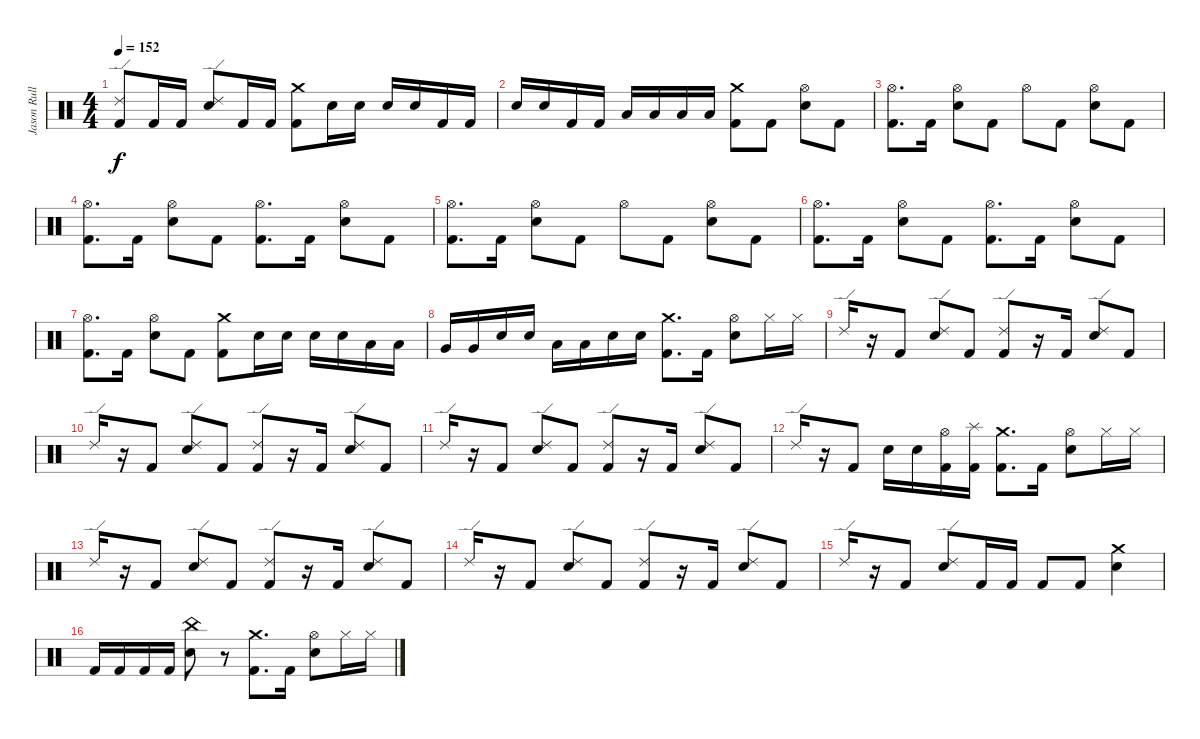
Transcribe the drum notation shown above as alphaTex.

\track ("Jason Rullo" "Jason Rull") {instrument percussion}
\staff {score}
\articulation defaults
\ts (4 4)
\tempo 152
\clef neutral
\ks c
("Ride (edge) 2" "Kick (hit) 2").8{dy f} "Kick (hit) 2".16 "Kick (hit) 2".16 ("Ride (edge) 2" "Electric Snare (hit)").8 "Kick (hit) 2".16 "Kick (hit) 2".16 ("Crash medium (hit)" "Kick (hit) 2").8 "Electric Snare (hit)".16 "Electric Snare (hit)".16 "Electric Snare (hit)".16 "Electric Snare (hit)".16 "Kick (hit) 2".16 "Kick (hit) 2".16 |
"Electric Snare (hit)".16 "Electric Snare (hit)".16 "Kick (hit) 2".16 "Kick (hit) 2".16 "Low Tom (hit)".16 "Low Tom (hit)".16 "Low Floor Tom (hit)".16 "Low Floor Tom (hit)".16 ("Crash medium (hit)" "Kick (hit) 2").8 "Kick (hit) 2".8 ("Hi-Hat (open)" "Electric Snare (hit)").8 "Kick (hit) 2".8 |
("Hi-Hat (open)" "Kick (hit) 2").8{d} "Kick (hit) 2".16 ("Hi-Hat (open)" "Electric Snare (hit)").8 "Kick (hit) 2".8 "Hi-Hat (open)".8 "Kick (hit) 2".8 ("Hi-Hat (open)" "Electric Snare (hit)").8 "Kick (hit) 2".8 |
("Hi-Hat (open)" "Kick (hit) 2").8{d} "Kick (hit) 2".16 ("Hi-Hat (open)" "Electric Snare (hit)").8 "Kick (hit) 2".8 ("Hi-Hat (open)" "Kick (hit) 2").8{d} "Kick (hit) 2".16 ("Hi-Hat (open)" "Electric Snare (hit)").8 "Kick (hit) 2".8 |
("Hi-Hat (open)" "Kick (hit) 2").8{d} "Kick (hit) 2".16 ("Hi-Hat (open)" "Electric Snare (hit)").8 "Kick (hit) 2".8 "Hi-Hat (open)".8 "Kick (hit) 2".8 ("Hi-Hat (open)" "Electric Snare (hit)").8 "Kick (hit) 2".8 |
("Hi-Hat (open)" "Kick (hit) 2").8{d} "Kick (hit) 2".16 ("Hi-Hat (open)" "Electric Snare (hit)").8 "Kick (hit) 2".8 ("Hi-Hat (open)" "Kick (hit) 2").8{d} "Kick (hit) 2".16 ("Hi-Hat (open)" "Electric Snare (hit)").8 "Kick (hit) 2".8 |
("Hi-Hat (open)" "Kick (hit) 2").8{d} "Kick (hit) 2".16 ("Hi-Hat (open)" "Electric Snare (hit)").8 "Kick (hit) 2".8 ("Crash medium (hit)" "Kick (hit) 2").8 "Electric Snare (hit)".16 "Electric Snare (hit)".16 "Electric Snare (hit)".16 "Electric Snare (hit)".16 "Low Tom (hit)".16 "Low Tom (hit)".16 |
"Very Low Tom (hit)".16 "Very Low Tom (hit)".16 "Electric Snare (hit)".16 "Electric Snare (hit)".16 "Low Floor Tom (hit)".16 "Low Floor Tom (hit)".16 "Electric Snare (hit)".16 "Electric Snare (hit)".16 ("Crash medium (hit)" "Kick (hit) 2").8{d} "Kick (hit) 2".16 ("Hi-Hat (open)" "Electric Snare (hit)").8 "Hi-Hat (closed)".16 "Hi-Hat (closed)".16 |
"Ride (edge) 2".16 r.16 "Kick (hit) 2".8 ("Ride (edge) 2" "Electric Snare (hit)").8 "Kick (hit) 2".8 ("Ride (edge) 2" "Kick (hit) 2").8 r.16 "Kick (hit) 2".16 ("Electric Snare (hit)" "Ride (edge) 2").8 "Kick (hit) 2".8 |
"Ride (edge) 2".16 r.16 "Kick (hit) 2".8 ("Electric Snare (hit)" "Ride (edge) 2").8 "Kick (hit) 2".8 ("Ride (edge) 2" "Kick (hit) 2").8 r.16 "Kick (hit) 2".16 ("Electric Snare (hit)" "Ride (edge) 2").8 "Kick (hit) 2".8 |
"Ride (edge) 2".16 r.16 "Kick (hit) 2".8 ("Electric Snare (hit)" "Ride (edge) 2").8 "Kick (hit) 2".8 ("Ride (edge) 2" "Kick (hit) 2").8 r.16 "Kick (hit) 2".16 ("Electric Snare (hit)" "Ride (edge) 2").8 "Kick (hit) 2".8 |
"Ride (edge) 2".16 r.16 "Kick (hit) 2".8 "Electric Snare (hit)".16 "Electric Snare (hit)".16 ("Kick (hit) 2" "Hi-Hat (open)").16 ("Kick (hit) 2" "Splash (hit)").16 ("Crash medium (hit)" "Kick (hit) 2").8{d} "Kick (hit) 2".16 ("Hi-Hat (open)" "Electric Snare (hit)").8 "Hi-Hat (closed)".16 "Hi-Hat (closed)".16 |
"Ride (edge) 2".16 r.16 "Kick (hit) 2".8 ("Ride (edge) 2" "Electric Snare (hit)").8 "Kick (hit) 2".8 ("Ride (edge) 2" "Kick (hit) 2").8 r.16 "Kick (hit) 2".16 ("Electric Snare (hit)" "Ride (edge) 2").8 "Kick (hit) 2".8 |
"Ride (edge) 2".16 r.16 "Kick (hit) 2".8 ("Electric Snare (hit)" "Ride (edge) 2").8 "Kick (hit) 2".8 ("Ride (edge) 2" "Kick (hit) 2").8 r.16 "Kick (hit) 2".16 ("Electric Snare (hit)" "Ride (edge) 2").8 "Kick (hit) 2".8 |
"Ride (edge) 2".16 r.16 "Kick (hit) 2".8 ("Electric Snare (hit)" "Ride (edge) 2").8 "Kick (hit) 2".16 "Kick (hit) 2".16 "Kick (hit) 2".8 "Kick (hit) 2".8 ("Crash medium (hit)" "Electric Snare (hit)").4 |
"Kick (hit) 2".16 "Kick (hit) 2".16 "Kick (hit) 2".16 "Kick (hit) 2".16 ("China (hit)" "Electric Snare (hit)").8 r.8 ("Crash medium (hit)" "Kick (hit) 2").8{d} "Kick (hit) 2".16 ("Hi-Hat (open)" "Electric Snare (hit)").8 "Hi-Hat (closed)".16 "Hi-Hat (closed)".16
